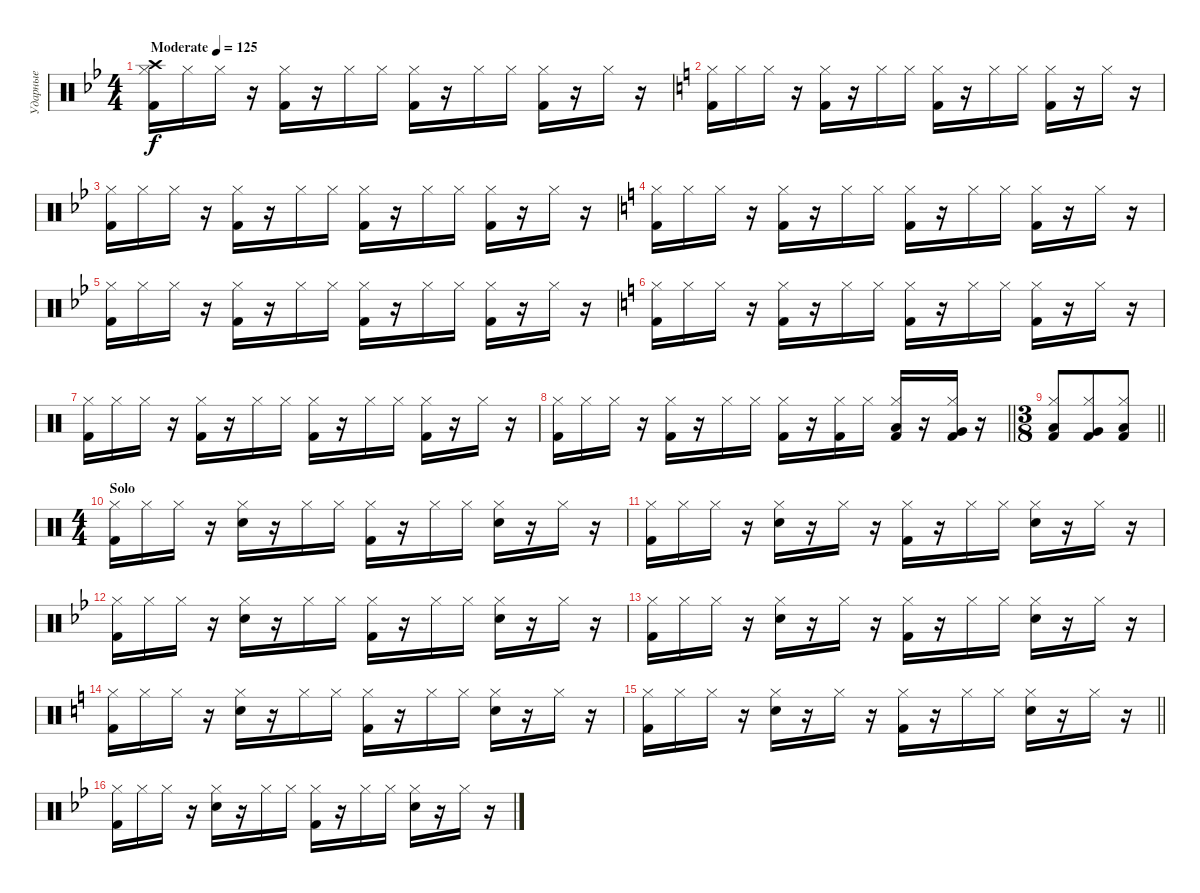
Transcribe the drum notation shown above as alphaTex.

\track ("Ударные" "Ударные") {instrument percussion}
\staff {score}
\articulation defaults
\ts (4 4)
\tempo (125 "Moderate")
\clef neutral
\ks bb
("Kick (hit) 2" "Crash high (hit)" "Hi-Hat (closed)").16{dy f} "Hi-Hat (closed)".16 "Hi-Hat (closed)".16 r.16 ("Kick (hit) 2" "Hi-Hat (closed)").16 r.16 "Hi-Hat (closed)".16 "Hi-Hat (closed)".16 ("Kick (hit) 2" "Hi-Hat (closed)").16 r.16 "Hi-Hat (closed)".16 "Hi-Hat (closed)".16 ("Kick (hit) 2" "Hi-Hat (closed)").16 r.16 "Hi-Hat (closed)".16 r.16 |
\ks c
("Kick (hit) 2" "Hi-Hat (closed)").16 "Hi-Hat (closed)".16 "Hi-Hat (closed)".16 r.16 ("Kick (hit) 2" "Hi-Hat (closed)").16 r.16 "Hi-Hat (closed)".16 "Hi-Hat (closed)".16 ("Kick (hit) 2" "Hi-Hat (closed)").16 r.16 "Hi-Hat (closed)".16 "Hi-Hat (closed)".16 ("Kick (hit) 2" "Hi-Hat (closed)").16 r.16 "Hi-Hat (closed)".16 r.16 |
\ks bb
("Kick (hit) 2" "Hi-Hat (closed)").16 "Hi-Hat (closed)".16 "Hi-Hat (closed)".16 r.16 ("Kick (hit) 2" "Hi-Hat (closed)").16 r.16 "Hi-Hat (closed)".16 "Hi-Hat (closed)".16 ("Kick (hit) 2" "Hi-Hat (closed)").16 r.16 "Hi-Hat (closed)".16 "Hi-Hat (closed)".16 ("Kick (hit) 2" "Hi-Hat (closed)").16 r.16 "Hi-Hat (closed)".16 r.16 |
\ks c
("Kick (hit) 2" "Hi-Hat (closed)").16 "Hi-Hat (closed)".16 "Hi-Hat (closed)".16 r.16 ("Kick (hit) 2" "Hi-Hat (closed)").16 r.16 "Hi-Hat (closed)".16 "Hi-Hat (closed)".16 ("Kick (hit) 2" "Hi-Hat (closed)").16 r.16 "Hi-Hat (closed)".16 "Hi-Hat (closed)".16 ("Kick (hit) 2" "Hi-Hat (closed)").16 r.16 "Hi-Hat (closed)".16 r.16 |
\ks bb
("Kick (hit) 2" "Hi-Hat (closed)").16 "Hi-Hat (closed)".16 "Hi-Hat (closed)".16 r.16 ("Kick (hit) 2" "Hi-Hat (closed)").16 r.16 "Hi-Hat (closed)".16 "Hi-Hat (closed)".16 ("Kick (hit) 2" "Hi-Hat (closed)").16 r.16 "Hi-Hat (closed)".16 "Hi-Hat (closed)".16 ("Kick (hit) 2" "Hi-Hat (closed)").16 r.16 "Hi-Hat (closed)".16 r.16 |
\ks c
("Kick (hit) 2" "Hi-Hat (closed)").16 "Hi-Hat (closed)".16 "Hi-Hat (closed)".16 r.16 ("Kick (hit) 2" "Hi-Hat (closed)").16 r.16 "Hi-Hat (closed)".16 "Hi-Hat (closed)".16 ("Kick (hit) 2" "Hi-Hat (closed)").16 r.16 "Hi-Hat (closed)".16 "Hi-Hat (closed)".16 ("Kick (hit) 2" "Hi-Hat (closed)").16 r.16 "Hi-Hat (closed)".16 r.16 |
("Kick (hit) 2" "Hi-Hat (closed)").16 "Hi-Hat (closed)".16 "Hi-Hat (closed)".16 r.16 ("Kick (hit) 2" "Hi-Hat (closed)").16 r.16 "Hi-Hat (closed)".16 "Hi-Hat (closed)".16 ("Kick (hit) 2" "Hi-Hat (closed)").16 r.16 "Hi-Hat (closed)".16 "Hi-Hat (closed)".16 ("Kick (hit) 2" "Hi-Hat (closed)").16 r.16 "Hi-Hat (closed)".16 r.16 |
\barLineRight lightlight
("Kick (hit) 2" "Hi-Hat (closed)").16 "Hi-Hat (closed)".16 "Hi-Hat (closed)".16 r.16 ("Kick (hit) 2" "Hi-Hat (closed)").16 r.16 "Hi-Hat (closed)".16 "Hi-Hat (closed)".16 ("Kick (hit) 2" "Hi-Hat (closed)").16 r.16 ("Kick (hit) 2" "Hi-Hat (closed)").16 "Hi-Hat (closed)".16 ("Kick (hit) 2" "Low Tom (hit)" "Hi-Hat (closed)").16 r.16 ("Kick (hit) 2" "Very Low Tom (hit)" "Hi-Hat (closed)").16 r.16 |
\ts (3 8)
\barLineRight lightlight
("Kick (hit) 2" "Low Floor Tom (hit)" "Hi-Hat (closed)").8 ("Kick (hit) 2" "Very Low Tom (hit)" "Hi-Hat (closed)").8 ("Kick (hit) 2" "Low Tom (hit)" "Hi-Hat (closed)").8 |
\ts (4 4)
\section ("" "Solo")
("Kick (hit) 2" "Hi-Hat (closed)").16 "Hi-Hat (closed)".16 "Hi-Hat (closed)".16 r.16 ("Snare (hit) 2" "Hi-Hat (closed)").16 r.16 "Hi-Hat (closed)".16 "Hi-Hat (closed)".16 ("Kick (hit) 2" "Hi-Hat (closed)").16 r.16 "Hi-Hat (closed)".16 "Hi-Hat (closed)".16 ("Snare (hit) 2" "Hi-Hat (closed)").16 r.16 "Hi-Hat (closed)".16 r.16 |
("Kick (hit) 2" "Hi-Hat (closed)").16 "Hi-Hat (closed)".16 "Hi-Hat (closed)".16 r.16 ("Snare (hit) 2" "Hi-Hat (closed)").16 r.16 "Hi-Hat (closed)".16 r.16 ("Kick (hit) 2" "Hi-Hat (closed)").16 r.16 "Hi-Hat (closed)".16 "Hi-Hat (closed)".16 ("Snare (hit) 2" "Hi-Hat (closed)").16 r.16 "Hi-Hat (closed)".16 r.16 |
\ks bb
("Kick (hit) 2" "Hi-Hat (closed)").16 "Hi-Hat (closed)".16 "Hi-Hat (closed)".16 r.16 ("Snare (hit) 2" "Hi-Hat (closed)").16 r.16 "Hi-Hat (closed)".16 "Hi-Hat (closed)".16 ("Kick (hit) 2" "Hi-Hat (closed)").16 r.16 "Hi-Hat (closed)".16 "Hi-Hat (closed)".16 ("Snare (hit) 2" "Hi-Hat (closed)").16 r.16 "Hi-Hat (closed)".16 r.16 |
("Kick (hit) 2" "Hi-Hat (closed)").16 "Hi-Hat (closed)".16 "Hi-Hat (closed)".16 r.16 ("Snare (hit) 2" "Hi-Hat (closed)").16 r.16 "Hi-Hat (closed)".16 r.16 ("Kick (hit) 2" "Hi-Hat (closed)").16 r.16 "Hi-Hat (closed)".16 "Hi-Hat (closed)".16 ("Snare (hit) 2" "Hi-Hat (closed)").16 r.16 "Hi-Hat (closed)".16 r.16 |
\ks c
("Kick (hit) 2" "Hi-Hat (closed)").16 "Hi-Hat (closed)".16 "Hi-Hat (closed)".16 r.16 ("Snare (hit) 2" "Hi-Hat (closed)").16 r.16 "Hi-Hat (closed)".16 "Hi-Hat (closed)".16 ("Kick (hit) 2" "Hi-Hat (closed)").16 r.16 "Hi-Hat (closed)".16 "Hi-Hat (closed)".16 ("Snare (hit) 2" "Hi-Hat (closed)").16 r.16 "Hi-Hat (closed)".16 r.16 |
\barLineRight lightlight
("Kick (hit) 2" "Hi-Hat (closed)").16 "Hi-Hat (closed)".16 "Hi-Hat (closed)".16 r.16 ("Snare (hit) 2" "Hi-Hat (closed)").16 r.16 "Hi-Hat (closed)".16 r.16 ("Kick (hit) 2" "Hi-Hat (closed)").16 r.16 "Hi-Hat (closed)".16 "Hi-Hat (closed)".16 ("Snare (hit) 2" "Hi-Hat (closed)").16 r.16 "Hi-Hat (closed)".16 r.16 |
\ks bb
("Kick (hit) 2" "Hi-Hat (closed)").16 "Hi-Hat (closed)".16 "Hi-Hat (closed)".16 r.16 ("Snare (hit) 2" "Hi-Hat (closed)").16 r.16 "Hi-Hat (closed)".16 "Hi-Hat (closed)".16 ("Kick (hit) 2" "Hi-Hat (closed)").16 r.16 "Hi-Hat (closed)".16 "Hi-Hat (closed)".16 ("Snare (hit) 2" "Hi-Hat (closed)").16 r.16 "Hi-Hat (closed)".16 r.16
